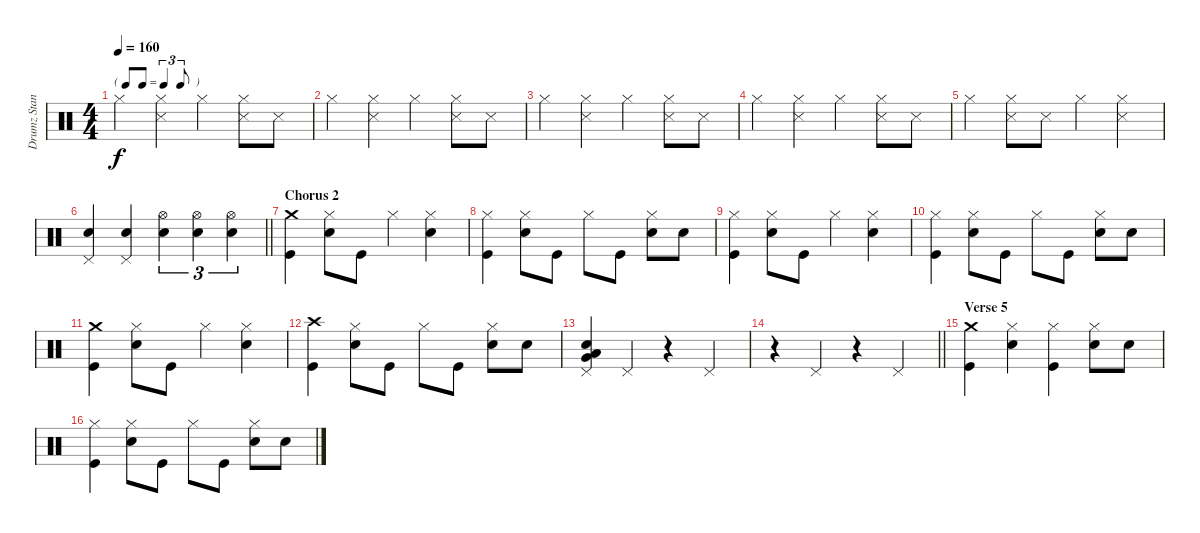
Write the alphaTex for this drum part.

\track ("Drumz Standard" "Drumz Stan") {instrument percussion}
\staff {score}
\articulation defaults
\ts (4 4)
\tf triplet8th
\tempo 160
\clef neutral
\ks c "Hi-Hat (closed)".4{dy f}
("Hi-Hat (closed)" "Snare (side stick) 3").4 "Hi-Hat (closed)".4 ("Hi-Hat (closed)" "Snare (side stick) 3").8 "Snare (side stick) 3".8 |
"Hi-Hat (closed)".4 ("Hi-Hat (closed)" "Snare (side stick) 3").4 "Hi-Hat (closed)".4 ("Hi-Hat (closed)" "Snare (side stick) 3").8 "Snare (side stick) 3".8 |
"Hi-Hat (closed)".4 ("Hi-Hat (closed)" "Snare (side stick) 3").4 "Hi-Hat (closed)".4 ("Hi-Hat (closed)" "Snare (side stick) 3").8 "Snare (side stick) 3".8 |
"Hi-Hat (closed)".4 ("Hi-Hat (closed)" "Snare (side stick) 3").4 "Hi-Hat (closed)".4 ("Hi-Hat (closed)" "Snare (side stick) 3").8 "Snare (side stick) 3".8 |
"Hi-Hat (closed)".4 ("Hi-Hat (closed)" "Snare (side stick) 3").8 "Snare (side stick) 3".8 "Hi-Hat (closed)".4 ("Hi-Hat (closed)" "Snare (side stick) 3").4 |
\barLineRight lightlight
("Pedal Hi-Hat (hit)" "Electric Snare (hit)").4 ("Pedal Hi-Hat (hit)" "Electric Snare (hit)").4 ("Hi-Hat (open)" "Electric Snare (hit)").4{tu (3 2)} ("Hi-Hat (open)" "Electric Snare (hit)").4{tu (3 2)} ("Hi-Hat (open)" "Electric Snare (hit)").4{tu (3 2)} |
\section ("" "Chorus 2")
("Crash medium (hit)" "Kick (hit)").4 ("Hi-Hat (closed)" "Electric Snare (hit)").8 "Kick (hit)".8 "Hi-Hat (closed)".4 ("Hi-Hat (closed)" "Electric Snare (hit)").4 |
("Hi-Hat (closed)" "Kick (hit)").4 ("Hi-Hat (closed)" "Electric Snare (hit)").8 "Kick (hit)".8 "Hi-Hat (closed)".8 "Kick (hit)".8 ("Hi-Hat (closed)" "Electric Snare (hit)").8 "Electric Snare (hit)".8 |
("Hi-Hat (closed)" "Kick (hit)").4 ("Hi-Hat (closed)" "Electric Snare (hit)").8 "Kick (hit)".8 "Hi-Hat (closed)".4 ("Hi-Hat (closed)" "Electric Snare (hit)").4 |
("Hi-Hat (closed)" "Kick (hit)").4 ("Hi-Hat (closed)" "Electric Snare (hit)").8 "Kick (hit)".8 "Hi-Hat (closed)".8 "Kick (hit)".8 ("Hi-Hat (closed)" "Electric Snare (hit)").8 "Electric Snare (hit)".8 |
("Crash medium (hit)" "Kick (hit)").4 ("Hi-Hat (closed)" "Electric Snare (hit)").8 "Kick (hit)".8 "Hi-Hat (closed)".4 ("Hi-Hat (closed)" "Electric Snare (hit)").4 |
("Crash high (hit)" "Kick (hit)").4 ("Hi-Hat (closed)" "Electric Snare (hit)").8 "Kick (hit)".8 "Hi-Hat (closed)".8 "Kick (hit)".8 ("Hi-Hat (closed)" "Electric Snare (hit)").8 "Electric Snare (hit)".8 |
("Pedal Hi-Hat (hit)" "Very Low Tom (hit)" "Low Floor Tom (hit)" "Electric Snare (hit)").4 "Pedal Hi-Hat (hit)".4 r.4 "Pedal Hi-Hat (hit)".4 |
\barLineRight lightlight
r.4 "Pedal Hi-Hat (hit)".4 r.4 "Pedal Hi-Hat (hit)".4 |
\section ("" "Verse 5")
("Crash medium (hit)" "Kick (hit)").4 ("Hi-Hat (closed)" "Electric Snare (hit)").4 ("Hi-Hat (closed)" "Kick (hit)").4 ("Hi-Hat (closed)" "Electric Snare (hit)").8 "Electric Snare (hit)".8 |
("Hi-Hat (closed)" "Kick (hit)").4 ("Hi-Hat (closed)" "Electric Snare (hit)").8 "Kick (hit)".8 "Hi-Hat (closed)".8 "Kick (hit)".8 ("Hi-Hat (closed)" "Electric Snare (hit)").8 "Electric Snare (hit)".8
